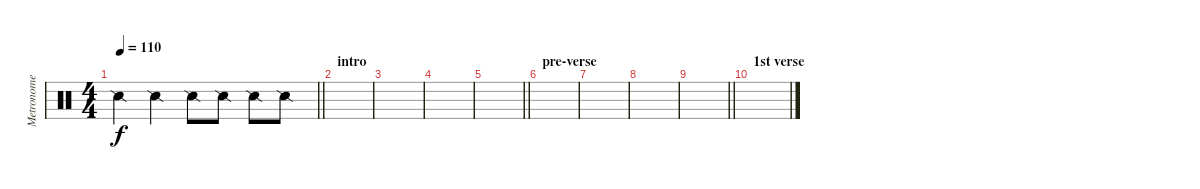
\track ("Metronome" "Metronome") {instrument percussion}
\staff {score}
\articulation defaults
\ts (4 4)
\tempo 110
\clef neutral
\barLineRight lightlight
\ks c "Snare (side stick) 2".4{dy f} "Snare (side stick) 2".4 "Snare (side stick) 2".8 "Snare (side stick) 2".8 "Snare (side stick) 2".8 "Snare (side stick) 2".8
|
\section ("" "intro")
\ks aminor
|
|
|
\barLineRight lightlight
|
\section ("" "pre-verse")
|
|
|
\barLineRight lightlight
|
\section ("" "1st verse")
